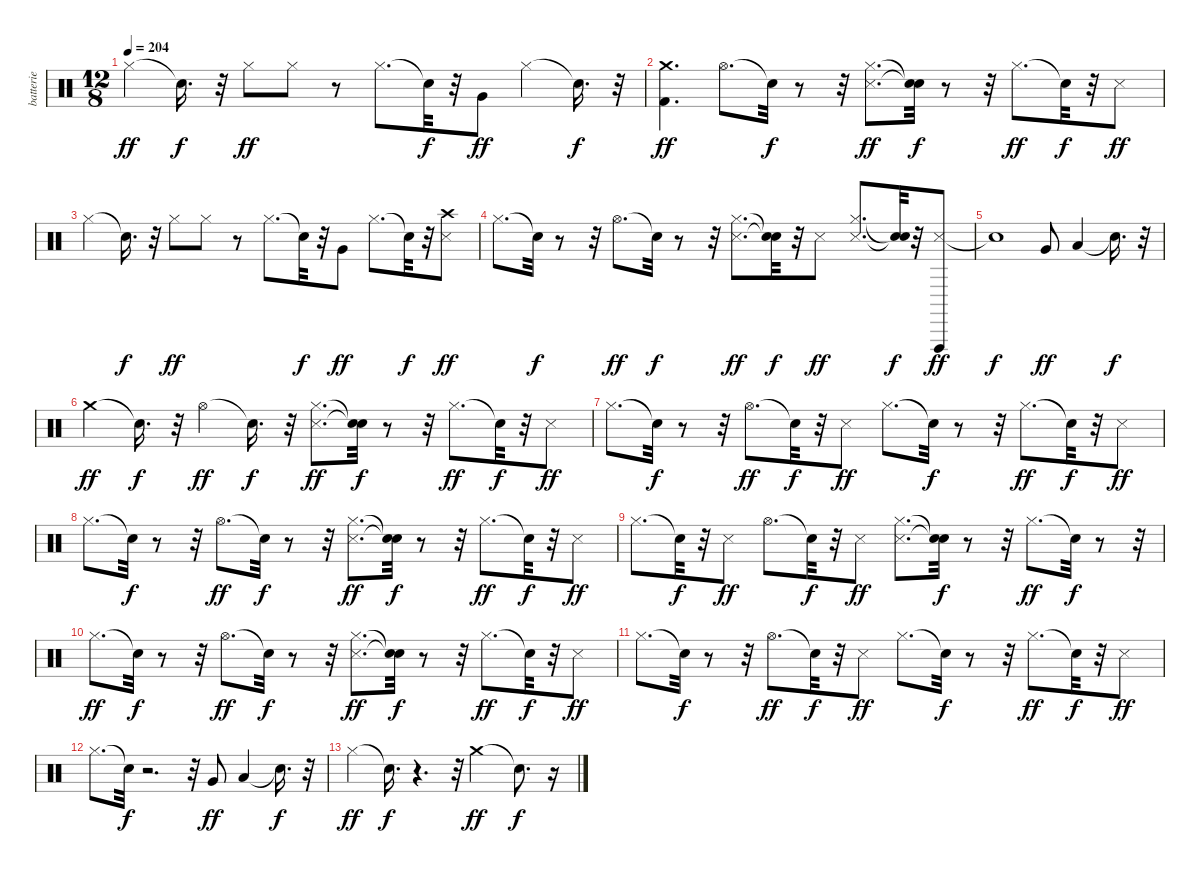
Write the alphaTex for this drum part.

\track ("batterie" "batterie") {instrument percussion}
\staff {score}
\articulation defaults
\ts (12 8)
\tempo 204
\clef neutral
\ks c "Hi-Hat (closed)".4{dy ff} "Snare (hit)"{t}.16{d dy f}
r.32 "Hi-Hat (closed)".8{dy ff} "Hi-Hat (closed)".8 r.8 "Hi-Hat (closed)".8{d} "Snare (hit)"{t}.32{dy f} r.32 "Very Low Tom (hit)".8{dy ff} "Hi-Hat (closed)".4 "Snare (hit)"{t}.16{d dy f} r.32 |
("Kick (hit) 2" "Crash medium (hit)").4{d dy ff} "Hi-Hat (open)".8{d} "Snare (hit)"{t}.32{dy f} r.8 r.32 ("Snare (side stick) 3" "Hi-Hat (closed)").8{d dy ff} ("Snare (hit)"{t} "Snare (hit)"{t}).32{dy f} r.8 r.32 "Hi-Hat (closed)".8{d dy ff} "Snare (hit)"{t}.32{dy f} r.32 "Snare (side stick) 3".8{dy ff} |
"Hi-Hat (closed)".4 "Snare (hit)"{t}.16{d dy f} r.32 "Hi-Hat (closed)".8{dy ff} "Hi-Hat (closed)".8 r.8 "Hi-Hat (closed)".8{d} "Snare (hit)"{t}.32{dy f} r.32 "Very Low Tom (hit)".8{dy ff} "Hi-Hat (closed)".8{d} "Snare (hit)"{t}.32{dy f} r.32 ("Snare (side stick) 3" "Crash high (hit)").8{dy ff} |
"Hi-Hat (closed)".8{d} "Snare (hit)"{t}.32{dy f} r.8 r.32 "Hi-Hat (open)".8{d dy ff} "Snare (hit)"{t}.32{dy f} r.8 r.32 ("Snare (side stick) 3" "Hi-Hat (closed)").8{d dy ff} ("Snare (hit)"{t} "Snare (hit)"{t}).32{dy f} r.32 "Snare (side stick) 3".8{dy ff} ("Snare (side stick) 3" "Hi-Hat (closed)").8{d} ("Snare (hit)"{t} "Snare (hit)"{t}).32{dy f} r.32 ("Snare (side stick) 3" "Vibraslap (hit)").8{dy ff} |
"Snare (hit)"{t}.1{dy f} "Very Low Tom (hit)".8{dy ff} "Low Floor Tom (hit)".4 "Snare (hit)"{t}.16{d dy f} r.32 |
"Crash medium (hit)".4{dy ff} "Snare (hit)"{t}.16{d dy f} r.32 "Hi-Hat (open)".4{dy ff} "Snare (hit)"{t}.16{d dy f} r.32 ("Snare (side stick) 3" "Hi-Hat (closed)").8{d dy ff} ("Snare (hit)"{t} "Snare (hit)"{t}).32{dy f} r.8 r.32 "Hi-Hat (closed)".8{d dy ff} "Snare (hit)"{t}.32{dy f} r.32 "Snare (side stick) 3".8{dy ff} |
"Hi-Hat (closed)".8{d} "Snare (hit)"{t}.32{dy f} r.8 r.32 "Hi-Hat (open)".8{d dy ff} "Snare (hit)"{t}.32{dy f} r.32 "Snare (side stick) 3".8{dy ff} "Hi-Hat (closed)".8{d} "Snare (hit)"{t}.32{dy f} r.8 r.32 "Hi-Hat (closed)".8{d dy ff} "Snare (hit)"{t}.32{dy f} r.32 "Snare (side stick) 3".8{dy ff} |
"Hi-Hat (closed)".8{d} "Snare (hit)"{t}.32{dy f} r.8 r.32 "Hi-Hat (open)".8{d dy ff} "Snare (hit)"{t}.32{dy f} r.8 r.32 ("Snare (side stick) 3" "Hi-Hat (closed)").8{d dy ff} ("Snare (hit)"{t} "Snare (hit)"{t}).32{dy f} r.8 r.32 "Hi-Hat (closed)".8{d dy ff} "Snare (hit)"{t}.32{dy f} r.32 "Snare (side stick) 3".8{dy ff} |
"Hi-Hat (closed)".8{d} "Snare (hit)"{t}.32{dy f} r.32 "Snare (side stick) 3".8{dy ff} "Hi-Hat (open)".8{d} "Snare (hit)"{t}.32{dy f} r.32 "Snare (side stick) 3".8{dy ff} ("Snare (side stick) 3" "Hi-Hat (closed)").8{d} ("Snare (hit)"{t} "Snare (hit)"{t}).32{dy f} r.8 r.32 "Hi-Hat (closed)".8{d dy ff} "Snare (hit)"{t}.32{dy f} r.8 r.32 |
"Hi-Hat (closed)".8{d dy ff} "Snare (hit)"{t}.32{dy f} r.8 r.32 "Hi-Hat (open)".8{d dy ff} "Snare (hit)"{t}.32{dy f} r.8 r.32 ("Snare (side stick) 3" "Hi-Hat (closed)").8{d dy ff} ("Snare (hit)"{t} "Snare (hit)"{t}).32{dy f} r.8 r.32 "Hi-Hat (closed)".8{d dy ff} "Snare (hit)"{t}.32{dy f} r.32 "Snare (side stick) 3".8{dy ff} |
"Hi-Hat (closed)".8{d} "Snare (hit)"{t}.32{dy f} r.8 r.32 "Hi-Hat (open)".8{d dy ff} "Snare (hit)"{t}.32{dy f} r.32 "Snare (side stick) 3".8{dy ff} "Hi-Hat (closed)".8{d} "Snare (hit)"{t}.32{dy f} r.8 r.32 "Hi-Hat (closed)".8{d dy ff} "Snare (hit)"{t}.32{dy f} r.32 "Snare (side stick) 3".8{dy ff} |
"Hi-Hat (closed)".8{d} "Snare (hit)"{t}.32{dy f} r.2{d} r.32 "Very Low Tom (hit)".8{dy ff} "Low Floor Tom (hit)".4 "Snare (hit)"{t}.16{d dy f} r.32 |
"Hi-Hat (closed)".4{dy ff} "Snare (hit)"{t}.16{d dy f} r.4{d} r.32 "Crash medium (hit)".2{dy ff} "Snare (hit)"{t}.8{d dy f} r.16
